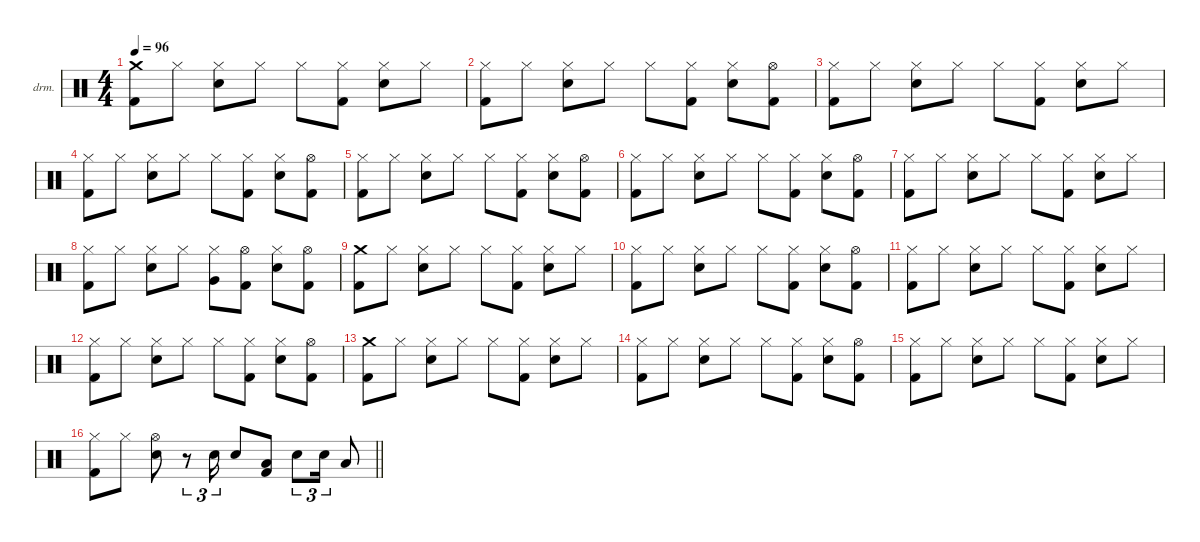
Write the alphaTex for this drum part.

\defaultSystemsLayout 4
\hideDynamics
\bracketExtendMode nobrackets
\firstSystemTrackNameOrientation horizontal
\otherSystemsTrackNameOrientation horizontal
\track ("Percussion" "drm.") {instrument percussion}
\staff {score}
\articulation defaults
\ts (4 4)
\tempo 96
\clef neutral
\ks c
("Crash medium (hit)" "Kick (hit) 2").8{dy f beam Down} "Hi-Hat (closed)".8{beam Down} ("Hi-Hat (closed)" "Snare (hit) 2").8{beam Down} "Hi-Hat (closed)".8{beam Down} "Hi-Hat (closed)".8{beam Down} ("Hi-Hat (closed)" "Kick (hit) 2").8{beam Down} ("Hi-Hat (closed)" "Snare (hit) 2").8{beam Down} "Hi-Hat (closed)".8{beam Down} |
("Hi-Hat (closed)" "Kick (hit) 2").8{beam Down} "Hi-Hat (closed)".8{beam Down} ("Hi-Hat (closed)" "Snare (hit) 2").8{beam Down} "Hi-Hat (closed)".8{beam Down} "Hi-Hat (closed)".8{beam Down} ("Hi-Hat (closed)" "Kick (hit) 2").8{beam Down} ("Hi-Hat (closed)" "Snare (hit) 2").8{beam Down} ("Hi-Hat (open)" "Kick (hit) 2").8{dy mf beam Down} |
("Hi-Hat (closed)" "Kick (hit) 2").8{dy f beam Down} "Hi-Hat (closed)".8{beam Down} ("Hi-Hat (closed)" "Snare (hit) 2").8{beam Down} "Hi-Hat (closed)".8{beam Down} "Hi-Hat (closed)".8{beam Down} ("Hi-Hat (closed)" "Kick (hit) 2").8{beam Down} ("Hi-Hat (closed)" "Snare (hit) 2").8{beam Down} "Hi-Hat (closed)".8{beam Down} |
("Hi-Hat (closed)" "Kick (hit) 2").8{beam Down} "Hi-Hat (closed)".8{beam Down} ("Hi-Hat (closed)" "Snare (hit) 2").8{beam Down} "Hi-Hat (closed)".8{beam Down} "Hi-Hat (closed)".8{beam Down} ("Hi-Hat (closed)" "Kick (hit) 2").8{beam Down} ("Hi-Hat (closed)" "Snare (hit) 2").8{beam Down} ("Hi-Hat (open)" "Kick (hit) 2").8{dy mf beam Down} |
("Hi-Hat (closed)" "Kick (hit) 2").8{dy f beam Down} "Hi-Hat (closed)".8{beam Down} ("Hi-Hat (closed)" "Snare (hit) 2").8{beam Down} "Hi-Hat (closed)".8{beam Down} "Hi-Hat (closed)".8{beam Down} ("Hi-Hat (closed)" "Kick (hit) 2").8{beam Down} ("Hi-Hat (closed)" "Snare (hit) 2").8{beam Down} ("Hi-Hat (open)" "Kick (hit) 2").8{dy mf beam Down} |
("Hi-Hat (closed)" "Kick (hit) 2").8{dy f beam Down} "Hi-Hat (closed)".8{beam Down} ("Hi-Hat (closed)" "Snare (hit) 2").8{beam Down} "Hi-Hat (closed)".8{beam Down} "Hi-Hat (closed)".8{beam Down} ("Hi-Hat (closed)" "Kick (hit) 2").8{beam Down} ("Hi-Hat (closed)" "Snare (hit) 2").8{beam Down} ("Hi-Hat (open)" "Kick (hit) 2").8{dy mf beam Down} |
("Hi-Hat (closed)" "Kick (hit) 2").8{dy f beam Down} "Hi-Hat (closed)".8{beam Down} ("Hi-Hat (closed)" "Snare (hit) 2").8{beam Down} "Hi-Hat (closed)".8{beam Down} "Hi-Hat (closed)".8{beam Down} ("Hi-Hat (closed)" "Kick (hit) 2").8{beam Down} ("Hi-Hat (closed)" "Snare (hit) 2").8{beam Down} "Hi-Hat (closed)".8{beam Down} |
("Hi-Hat (closed)" "Kick (hit) 2").8{beam Down} "Hi-Hat (closed)".8{beam Down} ("Hi-Hat (closed)" "Snare (hit) 2").8{beam Down} "Hi-Hat (closed)".8{beam Down} ("Hi-Hat (closed)" "Very Low Tom (hit)").8{beam Down} ("Hi-Hat (open)" "Kick (hit) 2").8{beam Down} ("Hi-Hat (closed)" "Snare (hit) 2").8{beam Down} ("Hi-Hat (open)" "Kick (hit) 2").8{beam Down} |
("Crash medium (hit)" "Kick (hit) 2").8{beam Down} "Hi-Hat (closed)".8{beam Down} ("Hi-Hat (closed)" "Snare (hit) 2").8{beam Down} "Hi-Hat (closed)".8{beam Down} "Hi-Hat (closed)".8{beam Down} ("Hi-Hat (closed)" "Kick (hit) 2").8{beam Down} ("Hi-Hat (closed)" "Snare (hit) 2").8{beam Down} "Hi-Hat (closed)".8{beam Down} |
("Hi-Hat (closed)" "Kick (hit) 2").8{beam Down} "Hi-Hat (closed)".8{beam Down} ("Hi-Hat (closed)" "Snare (hit) 2").8{beam Down} "Hi-Hat (closed)".8{beam Down} "Hi-Hat (closed)".8{beam Down} ("Hi-Hat (closed)" "Kick (hit) 2").8{beam Down} ("Hi-Hat (closed)" "Snare (hit) 2").8{beam Down} ("Hi-Hat (open)" "Kick (hit) 2").8{dy mf beam Down} |
("Hi-Hat (closed)" "Kick (hit) 2").8{dy f beam Down} "Hi-Hat (closed)".8{beam Down} ("Hi-Hat (closed)" "Snare (hit) 2").8{beam Down} "Hi-Hat (closed)".8{beam Down} "Hi-Hat (closed)".8{beam Down} ("Hi-Hat (closed)" "Kick (hit) 2").8{beam Down} ("Hi-Hat (closed)" "Snare (hit) 2").8{beam Down} "Hi-Hat (closed)".8{beam Down} |
("Hi-Hat (closed)" "Kick (hit) 2").8{beam Down} "Hi-Hat (closed)".8{beam Down} ("Hi-Hat (closed)" "Snare (hit) 2").8{beam Down} "Hi-Hat (closed)".8{beam Down} "Hi-Hat (closed)".8{beam Down} ("Hi-Hat (closed)" "Kick (hit) 2").8{beam Down} ("Hi-Hat (closed)" "Snare (hit) 2").8{beam Down} ("Hi-Hat (open)" "Kick (hit) 2").8{dy mf beam Down} |
("Crash medium (hit)" "Kick (hit) 2").8{dy f beam Down} "Hi-Hat (closed)".8{beam Down} ("Hi-Hat (closed)" "Snare (hit) 2").8{beam Down} "Hi-Hat (closed)".8{beam Down} "Hi-Hat (closed)".8{beam Down} ("Hi-Hat (closed)" "Kick (hit) 2").8{beam Down} ("Hi-Hat (closed)" "Snare (hit) 2").8{beam Down} "Hi-Hat (closed)".8{beam Down} |
("Hi-Hat (closed)" "Kick (hit) 2").8{beam Down} "Hi-Hat (closed)".8{beam Down} ("Hi-Hat (closed)" "Snare (hit) 2").8{beam Down} "Hi-Hat (closed)".8{beam Down} "Hi-Hat (closed)".8{beam Down} ("Hi-Hat (closed)" "Kick (hit) 2").8{beam Down} ("Hi-Hat (closed)" "Snare (hit) 2").8{beam Down} ("Hi-Hat (open)" "Kick (hit) 2").8{dy mf beam Down} |
("Hi-Hat (closed)" "Kick (hit) 2").8{dy f beam Down} "Hi-Hat (closed)".8{beam Down} ("Hi-Hat (closed)" "Snare (hit) 2").8{beam Down} "Hi-Hat (closed)".8{beam Down} "Hi-Hat (closed)".8{beam Down} ("Hi-Hat (closed)" "Kick (hit) 2").8{beam Down} ("Hi-Hat (closed)" "Snare (hit) 2").8{beam Down} "Hi-Hat (closed)".8{beam Down} |
\barLineRight lightlight
("Hi-Hat (closed)" "Kick (hit) 2").8{beam Down} "Hi-Hat (closed)".8{beam Down} ("Hi-Hat (open)" "Snare (hit) 2").8{beam Down} r.8{tu (3 2) beam Down} "Snare (hit) 2".16{tu (3 2) beam Down} "Snare (hit) 2".8{beam Up} ("Low Tom (hit)" "Kick (hit) 2").8{beam Up} "Snare (hit) 2".8{tu (3 2) beam Down} "Snare (hit) 2".16{tu (3 2) beam Down} "Low Tom (hit)".8{beam Up}
